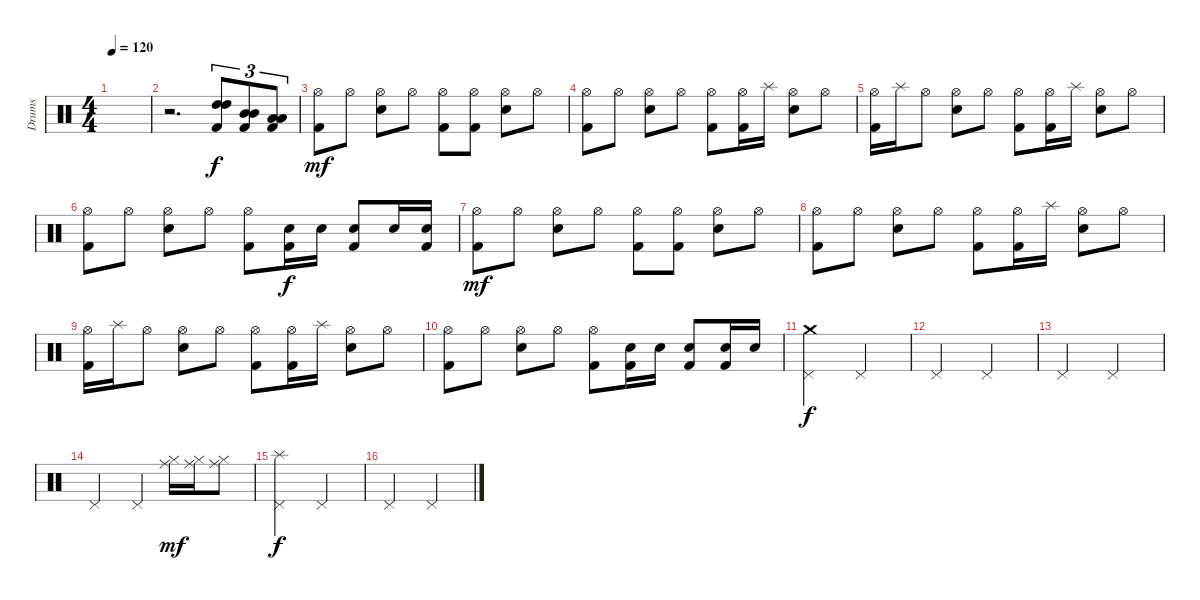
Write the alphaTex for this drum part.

\track ("Drums" "Drums") {instrument percussion}
\staff {score}
\articulation defaults
\ts (4 4)
\tempo 120
\clef neutral
\ks c
|
r.2{d} ("High Tom (hit)" "High Tom (hit)" "Kick (hit) 2").8{tu (3 2) dy f volume 13} ("Mid Tom (hit)" "Mid Tom (hit)" "Kick (hit) 2").8{tu (3 2)} ("Low Tom (hit)" "Low Tom (hit)" "Kick (hit) 2").8{tu (3 2)} |
("Hi-Hat (open)" "Kick (hit) 2").8{dy mf} "Hi-Hat (open)".8 ("Hi-Hat (open)" "Electric Snare (hit)").8 "Hi-Hat (open)".8 ("Hi-Hat (open)" "Kick (hit) 2").8 ("Hi-Hat (open)" "Kick (hit) 2").8 ("Hi-Hat (open)" "Electric Snare (hit)").8 "Hi-Hat (open)".8 |
("Hi-Hat (open)" "Kick (hit) 2").8 "Hi-Hat (open)".8 ("Hi-Hat (open)" "Electric Snare (hit)").8 "Hi-Hat (open)".8 ("Hi-Hat (open)" "Kick (hit) 2").8 ("Hi-Hat (open)" "Kick (hit) 2").16 "Splash (hit)".16 ("Hi-Hat (open)" "Electric Snare (hit)").8 "Hi-Hat (open)".8 |
("Hi-Hat (open)" "Kick (hit) 2").16 "Splash (hit)".16 "Hi-Hat (open)".8 ("Hi-Hat (open)" "Electric Snare (hit)").8 "Hi-Hat (open)".8 ("Hi-Hat (open)" "Kick (hit) 2").8 ("Hi-Hat (open)" "Kick (hit) 2").16 "Splash (hit)".16 ("Hi-Hat (open)" "Electric Snare (hit)").8 "Hi-Hat (open)".8 |
("Hi-Hat (open)" "Kick (hit) 2").8 "Hi-Hat (open)".8 ("Hi-Hat (open)" "Electric Snare (hit)").8 "Hi-Hat (open)".8 ("Hi-Hat (open)" "Kick (hit) 2").8 ("Electric Snare (hit)" "Kick (hit) 2").16{dy f} "Electric Snare (hit)".16 ("Electric Snare (hit)" "Kick (hit) 2").8 "Electric Snare (hit)".16 ("Electric Snare (hit)" "Kick (hit) 2").16 |
("Hi-Hat (open)" "Kick (hit) 2").8{dy mf} "Hi-Hat (open)".8 ("Hi-Hat (open)" "Electric Snare (hit)").8 "Hi-Hat (open)".8 ("Hi-Hat (open)" "Kick (hit) 2").8 ("Hi-Hat (open)" "Kick (hit) 2").8 ("Hi-Hat (open)" "Electric Snare (hit)").8 "Hi-Hat (open)".8 |
("Hi-Hat (open)" "Kick (hit) 2").8 "Hi-Hat (open)".8 ("Hi-Hat (open)" "Electric Snare (hit)").8 "Hi-Hat (open)".8 ("Hi-Hat (open)" "Kick (hit) 2").8 ("Hi-Hat (open)" "Kick (hit) 2").16 "Splash (hit)".16 ("Hi-Hat (open)" "Electric Snare (hit)").8 "Hi-Hat (open)".8 |
("Hi-Hat (open)" "Kick (hit) 2").16 "Splash (hit)".16 "Hi-Hat (open)".8 ("Hi-Hat (open)" "Electric Snare (hit)").8 "Hi-Hat (open)".8 ("Hi-Hat (open)" "Kick (hit) 2").8 ("Hi-Hat (open)" "Kick (hit) 2").16 "Splash (hit)".16 ("Hi-Hat (open)" "Electric Snare (hit)").8 "Hi-Hat (open)".8 |
("Hi-Hat (open)" "Kick (hit) 2").8 "Hi-Hat (open)".8 ("Hi-Hat (open)" "Electric Snare (hit)").8 "Hi-Hat (open)".8 ("Hi-Hat (open)" "Kick (hit) 2").8 ("Electric Snare (hit)" "Kick (hit) 2").16 "Electric Snare (hit)".16 ("Electric Snare (hit)" "Kick (hit) 2").8 ("Electric Snare (hit)" "Kick (hit) 2").16 "Electric Snare (hit)".16 |
("Crash medium (hit)" "Pedal Hi-Hat (hit)").2{dy f volume 12} "Pedal Hi-Hat (hit)".2 |
"Pedal Hi-Hat (hit)".2 "Pedal Hi-Hat (hit)".2 |
"Pedal Hi-Hat (hit)".2 "Pedal Hi-Hat (hit)".2 |
"Pedal Hi-Hat (hit)".2 "Pedal Hi-Hat (hit)".4 ("Ride (middle)" "Hi-Hat (closed)").16{dy mf} ("Ride (middle)" "Hi-Hat (closed)").16 ("Ride (middle)" "Hi-Hat (closed)").8 |
("Splash (hit)" "Pedal Hi-Hat (hit)").2{dy f} "Pedal Hi-Hat (hit)".2 |
"Pedal Hi-Hat (hit)".2 "Pedal Hi-Hat (hit)".2
